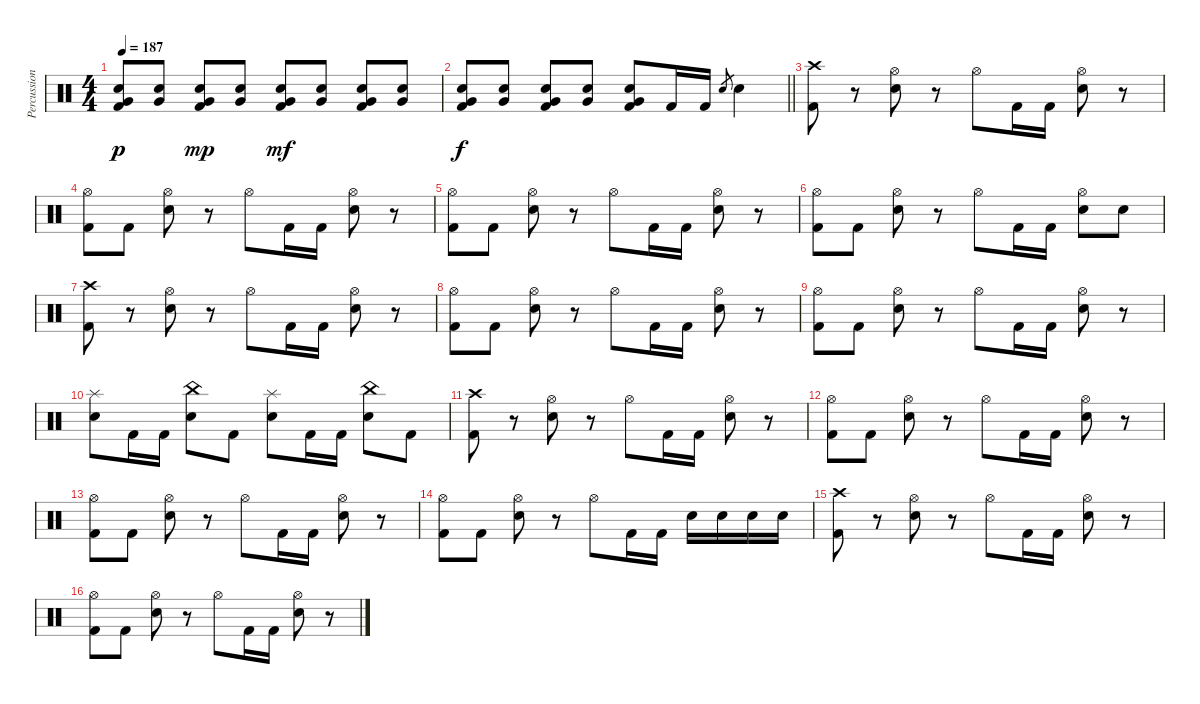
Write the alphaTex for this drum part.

\track ("Percussion" "Percussion") {instrument percussion}
\staff {score}
\articulation defaults
\ts (4 4)
\tempo 187
\clef neutral
\ks c
("Very Low Tom (hit)" "Snare (hit) 2" "Kick (hit) 2").8{dy p} ("Very Low Tom (hit)" "Snare (hit) 2").8 ("Very Low Tom (hit)" "Snare (hit) 2" "Kick (hit) 2").8{dy mp} ("Very Low Tom (hit)" "Snare (hit) 2").8 ("Very Low Tom (hit)" "Snare (hit) 2" "Kick (hit) 2").8{dy mf} ("Very Low Tom (hit)" "Snare (hit) 2").8 ("Very Low Tom (hit)" "Snare (hit) 2" "Kick (hit) 2").8 ("Very Low Tom (hit)" "Snare (hit) 2").8 |
\barLineRight lightlight
("Very Low Tom (hit)" "Snare (hit) 2" "Kick (hit) 2").8{dy f} ("Very Low Tom (hit)" "Snare (hit) 2").8 ("Very Low Tom (hit)" "Snare (hit) 2" "Kick (hit) 2").8 ("Very Low Tom (hit)" "Snare (hit) 2").8 ("Very Low Tom (hit)" "Snare (hit) 2" "Kick (hit) 2").8 "Kick (hit) 2".16 "Kick (hit) 2".16 "Snare (hit) 2".8{gr} "Snare (hit) 2".4 |
\section ("" "")
("Crash high (hit)" "Kick (hit) 2").8 r.8 ("Hi-Hat (open)" "Snare (hit) 2").8 r.8 "Hi-Hat (open)".8 "Kick (hit) 2".16 "Kick (hit) 2".16 ("Hi-Hat (open)" "Snare (hit) 2").8 r.8 |
("Hi-Hat (open)" "Kick (hit) 2").8 "Kick (hit) 2".8 ("Hi-Hat (open)" "Snare (hit) 2").8 r.8 "Hi-Hat (open)".8 "Kick (hit) 2".16 "Kick (hit) 2".16 ("Hi-Hat (open)" "Snare (hit) 2").8 r.8 |
("Hi-Hat (open)" "Kick (hit) 2").8 "Kick (hit) 2".8 ("Hi-Hat (open)" "Snare (hit) 2").8 r.8 "Hi-Hat (open)".8 "Kick (hit) 2".16 "Kick (hit) 2".16 ("Hi-Hat (open)" "Snare (hit) 2").8 r.8 |
("Hi-Hat (open)" "Kick (hit) 2").8 "Kick (hit) 2".8 ("Hi-Hat (open)" "Snare (hit) 2").8 r.8 "Hi-Hat (open)".8 "Kick (hit) 2".16 "Kick (hit) 2".16 ("Hi-Hat (open)" "Snare (hit) 2").8 "Snare (hit) 2".8 |
("Crash high (hit)" "Kick (hit) 2").8 r.8 ("Hi-Hat (open)" "Snare (hit) 2").8 r.8 "Hi-Hat (open)".8 "Kick (hit) 2".16 "Kick (hit) 2".16 ("Hi-Hat (open)" "Snare (hit) 2").8 r.8 |
("Hi-Hat (open)" "Kick (hit) 2").8 "Kick (hit) 2".8 ("Hi-Hat (open)" "Snare (hit) 2").8 r.8 "Hi-Hat (open)".8 "Kick (hit) 2".16 "Kick (hit) 2".16 ("Hi-Hat (open)" "Snare (hit) 2").8 r.8 |
("Hi-Hat (open)" "Kick (hit) 2").8 "Kick (hit) 2".8 ("Hi-Hat (open)" "Snare (hit) 2").8 r.8 "Hi-Hat (open)".8 "Kick (hit) 2".16 "Kick (hit) 2".16 ("Hi-Hat (open)" "Snare (hit) 2").8 r.8 |
("Splash (hit)" "Snare (hit) 2").8 "Kick (hit) 2".16 "Kick (hit) 2".16 ("China (hit)" "Snare (hit) 2").8 "Kick (hit) 2".8 ("Splash (hit)" "Snare (hit) 2").8 "Kick (hit) 2".16 "Kick (hit) 2".16 ("China (hit)" "Snare (hit) 2").8 "Kick (hit) 2".8 |
("Crash high (hit)" "Kick (hit) 2").8 r.8 ("Hi-Hat (open)" "Snare (hit) 2").8 r.8 "Hi-Hat (open)".8 "Kick (hit) 2".16 "Kick (hit) 2".16 ("Hi-Hat (open)" "Snare (hit) 2").8 r.8 |
("Hi-Hat (open)" "Kick (hit) 2").8 "Kick (hit) 2".8 ("Hi-Hat (open)" "Snare (hit) 2").8 r.8 "Hi-Hat (open)".8 "Kick (hit) 2".16 "Kick (hit) 2".16 ("Hi-Hat (open)" "Snare (hit) 2").8 r.8 |
("Hi-Hat (open)" "Kick (hit) 2").8 "Kick (hit) 2".8 ("Hi-Hat (open)" "Snare (hit) 2").8 r.8 "Hi-Hat (open)".8 "Kick (hit) 2".16 "Kick (hit) 2".16 ("Hi-Hat (open)" "Snare (hit) 2").8 r.8 |
("Hi-Hat (open)" "Kick (hit) 2").8 "Kick (hit) 2".8 ("Hi-Hat (open)" "Snare (hit) 2").8 r.8 "Hi-Hat (open)".8 "Kick (hit) 2".16 "Kick (hit) 2".16 "Snare (hit) 2".16 "Snare (hit) 2".16 "Snare (hit) 2".16 "Snare (hit) 2".16 |
("Crash high (hit)" "Kick (hit) 2").8 r.8 ("Hi-Hat (open)" "Snare (hit) 2").8 r.8 "Hi-Hat (open)".8 "Kick (hit) 2".16 "Kick (hit) 2".16 ("Hi-Hat (open)" "Snare (hit) 2").8 r.8 |
("Hi-Hat (open)" "Kick (hit) 2").8 "Kick (hit) 2".8 ("Hi-Hat (open)" "Snare (hit) 2").8 r.8 "Hi-Hat (open)".8 "Kick (hit) 2".16 "Kick (hit) 2".16 ("Hi-Hat (open)" "Snare (hit) 2").8 r.8
